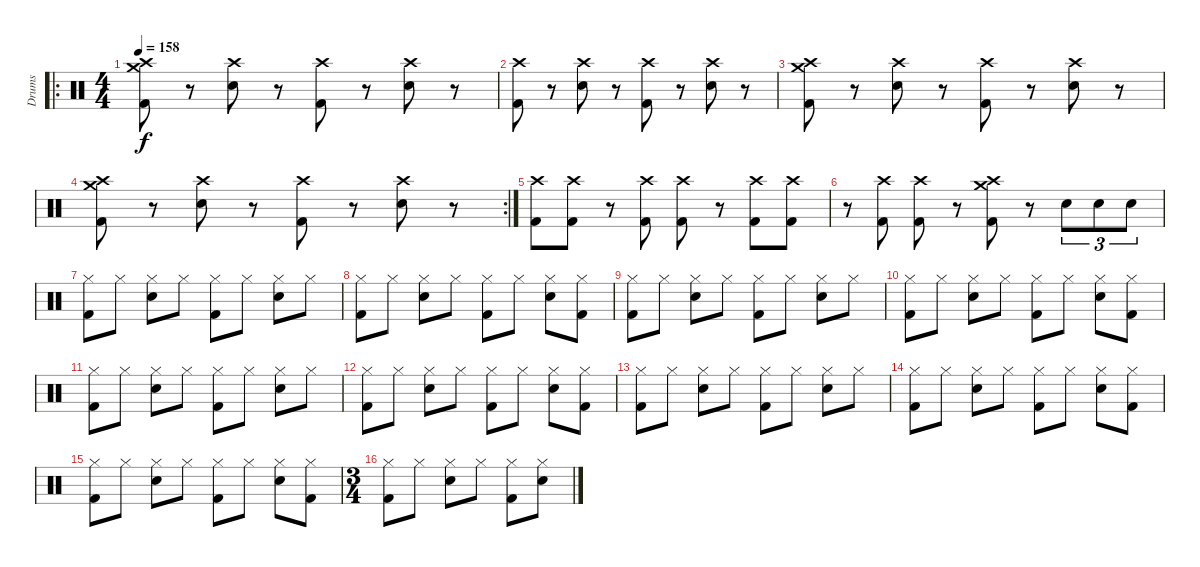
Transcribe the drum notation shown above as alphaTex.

\track ("Drums" "Drums") {instrument percussion}
\staff {score}
\articulation defaults
\ro
\ts (4 4)
\tempo 158
\clef neutral
\ks c
("Crash high (hit)" "Crash medium (hit)" "Kick (hit) 2").8{dy f} r.8 ("Crash high (hit)" "Snare (hit) 2").8 r.8 ("Crash high (hit)" "Kick (hit) 2").8 r.8 ("Crash high (hit)" "Snare (hit) 2").8 r.8 |
("Crash high (hit)" "Kick (hit) 2").8 r.8 ("Crash high (hit)" "Snare (hit) 2").8 r.8 ("Crash high (hit)" "Kick (hit) 2").8 r.8 ("Crash high (hit)" "Snare (hit) 2").8 r.8 |
("Crash high (hit)" "Crash medium (hit)" "Kick (hit) 2").8 r.8 ("Crash high (hit)" "Snare (hit) 2").8 r.8 ("Crash high (hit)" "Kick (hit) 2").8 r.8 ("Crash high (hit)" "Snare (hit) 2").8 r.8 |
\rc 2
("Crash high (hit)" "Crash medium (hit)" "Kick (hit) 2").8 r.8 ("Crash high (hit)" "Snare (hit) 2").8 r.8 ("Crash high (hit)" "Kick (hit) 2").8 r.8 ("Crash high (hit)" "Snare (hit) 2").8 r.8 |
("Crash high (hit)" "Kick (hit) 2").8 ("Crash high (hit)" "Kick (hit) 2").8 r.8 ("Crash high (hit)" "Kick (hit) 2").8 ("Crash high (hit)" "Kick (hit) 2").8 r.8 ("Crash high (hit)" "Kick (hit) 2").8 ("Crash high (hit)" "Kick (hit) 2").8 |
r.8 ("Crash high (hit)" "Kick (hit) 2").8 ("Crash high (hit)" "Kick (hit) 2").8 r.8 ("Crash high (hit)" "Crash medium (hit)" "Kick (hit) 2").8 r.8 "Snare (hit) 2".8{tu (3 2)} "Snare (hit) 2".8{tu (3 2)} "Snare (hit) 2".8{tu (3 2)} |
("Hi-Hat (closed)" "Kick (hit) 2").8 "Hi-Hat (closed)".8 ("Hi-Hat (closed)" "Snare (hit) 2").8 "Hi-Hat (closed)".8 ("Hi-Hat (closed)" "Kick (hit) 2").8 "Hi-Hat (closed)".8 ("Hi-Hat (closed)" "Snare (hit) 2").8 "Hi-Hat (closed)".8 |
("Hi-Hat (closed)" "Kick (hit) 2").8 "Hi-Hat (closed)".8 ("Hi-Hat (closed)" "Snare (hit) 2").8 "Hi-Hat (closed)".8 ("Hi-Hat (closed)" "Kick (hit) 2").8 "Hi-Hat (closed)".8 ("Hi-Hat (closed)" "Snare (hit) 2").8 ("Hi-Hat (closed)" "Kick (hit) 2").8 |
("Hi-Hat (closed)" "Kick (hit) 2").8 "Hi-Hat (closed)".8 ("Hi-Hat (closed)" "Snare (hit) 2").8 "Hi-Hat (closed)".8 ("Hi-Hat (closed)" "Kick (hit) 2").8 "Hi-Hat (closed)".8 ("Hi-Hat (closed)" "Snare (hit) 2").8 "Hi-Hat (closed)".8 |
("Hi-Hat (closed)" "Kick (hit) 2").8 "Hi-Hat (closed)".8 ("Hi-Hat (closed)" "Snare (hit) 2").8 "Hi-Hat (closed)".8 ("Hi-Hat (closed)" "Kick (hit) 2").8 "Hi-Hat (closed)".8 ("Hi-Hat (closed)" "Snare (hit) 2").8 ("Hi-Hat (closed)" "Kick (hit) 2").8 |
("Hi-Hat (closed)" "Kick (hit) 2").8 "Hi-Hat (closed)".8 ("Hi-Hat (closed)" "Snare (hit) 2").8 "Hi-Hat (closed)".8 ("Hi-Hat (closed)" "Kick (hit) 2").8 "Hi-Hat (closed)".8 ("Hi-Hat (closed)" "Snare (hit) 2").8 "Hi-Hat (closed)".8 |
("Hi-Hat (closed)" "Kick (hit) 2").8 "Hi-Hat (closed)".8 ("Hi-Hat (closed)" "Snare (hit) 2").8 "Hi-Hat (closed)".8 ("Hi-Hat (closed)" "Kick (hit) 2").8 "Hi-Hat (closed)".8 ("Hi-Hat (closed)" "Snare (hit) 2").8 ("Hi-Hat (closed)" "Kick (hit) 2").8 |
("Hi-Hat (closed)" "Kick (hit) 2").8 "Hi-Hat (closed)".8 ("Hi-Hat (closed)" "Snare (hit) 2").8 "Hi-Hat (closed)".8 ("Hi-Hat (closed)" "Kick (hit) 2").8 "Hi-Hat (closed)".8 ("Hi-Hat (closed)" "Snare (hit) 2").8 "Hi-Hat (closed)".8 |
("Hi-Hat (closed)" "Kick (hit) 2").8 "Hi-Hat (closed)".8 ("Hi-Hat (closed)" "Snare (hit) 2").8 "Hi-Hat (closed)".8 ("Hi-Hat (closed)" "Kick (hit) 2").8 "Hi-Hat (closed)".8 ("Hi-Hat (closed)" "Snare (hit) 2").8 ("Hi-Hat (closed)" "Kick (hit) 2").8 |
("Hi-Hat (closed)" "Kick (hit) 2").8 "Hi-Hat (closed)".8 ("Hi-Hat (closed)" "Snare (hit) 2").8 "Hi-Hat (closed)".8 ("Hi-Hat (closed)" "Kick (hit) 2").8 "Hi-Hat (closed)".8 ("Hi-Hat (closed)" "Snare (hit) 2").8 ("Hi-Hat (closed)" "Kick (hit) 2").8 |
\ts (3 4)
("Hi-Hat (closed)" "Kick (hit) 2").8 "Hi-Hat (closed)".8 ("Hi-Hat (closed)" "Snare (hit) 2").8 "Hi-Hat (closed)".8 ("Hi-Hat (closed)" "Kick (hit) 2").8 ("Hi-Hat (closed)" "Snare (hit) 2").8
